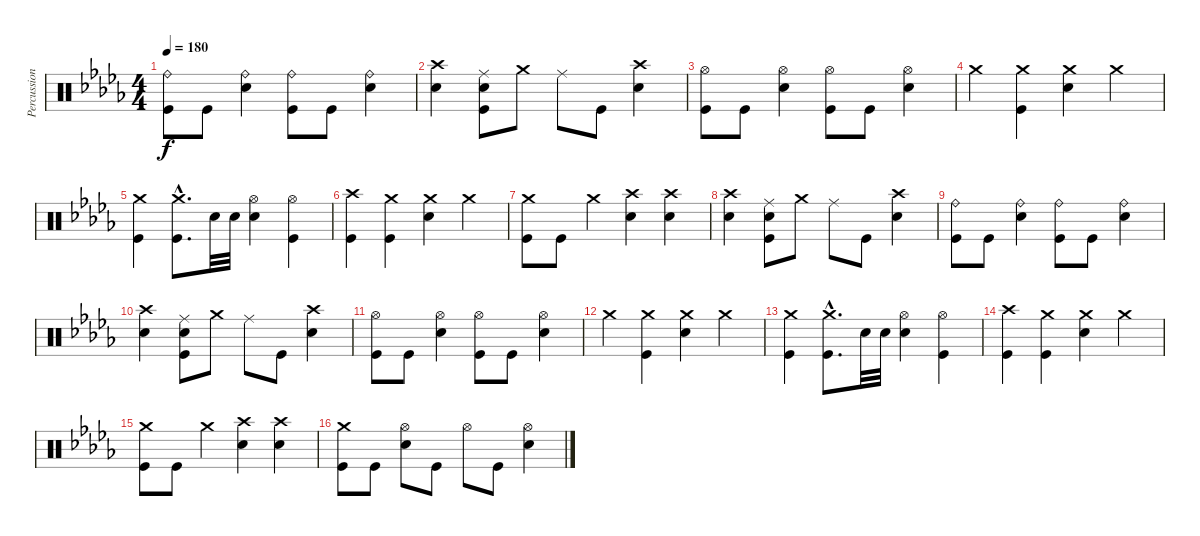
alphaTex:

\track ("Percussion" "Percussion") {instrument percussion}
\staff {score}
\articulation defaults
\ts (4 4)
\tempo 180
\clef neutral
\ks db
("Ride (bell)" "Kick (hit)").8{dy f} "Kick (hit)".8 ("Ride (bell)" "Electric Snare (hit)").4 ("Ride (bell)" "Kick (hit)").8 "Kick (hit)".8 ("Ride (bell)" "Electric Snare (hit)").4 |
("Crash high (hit)" "Electric Snare (hit)").4 ("Ride (middle)" "Electric Snare (hit)" "Kick (hit)").8 "Crash medium (hit)".8 "Ride (middle)".8 "Kick (hit)".8 ("Crash high (hit)" "Electric Snare (hit)").4 |
("Hi-Hat (open)" "Kick (hit)").8 "Kick (hit)".8 ("Hi-Hat (open)" "Electric Snare (hit)").4 ("Hi-Hat (open)" "Kick (hit)").8 "Kick (hit)".8 ("Hi-Hat (open)" "Electric Snare (hit)").4 |
"Crash medium (hit)".4 ("Crash medium (hit)" "Kick (hit)").4 ("Crash medium (hit)" "Electric Snare (hit)").4 "Crash medium (hit)".4 |
("Crash medium (hit)" "Kick (hit)").4 ("Crash medium (hit)"{hac} "Kick (hit)"{hac}).8{d} "Electric Snare (hit)".32 "Electric Snare (hit)".32 ("Hi-Hat (open)" "Electric Snare (hit)").4 ("Hi-Hat (open)" "Kick (hit)").4 |
("Crash high (hit)" "Kick (hit)").4 ("Crash medium (hit)" "Kick (hit)").4 ("Crash medium (hit)" "Electric Snare (hit)").4 "Crash medium (hit)".4 |
("Crash medium (hit)" "Kick (hit)").8 "Kick (hit)".8 "Crash medium (hit)".4 ("Crash high (hit)" "Electric Snare (hit)").4 ("Crash high (hit)" "Electric Snare (hit)").4 |
("Crash high (hit)" "Electric Snare (hit)").4 ("Ride (middle)" "Electric Snare (hit)" "Kick (hit)").8 "Crash medium (hit)".8 "Ride (middle)".8 "Kick (hit)".8 ("Crash high (hit)" "Electric Snare (hit)").4 |
("Ride (bell)" "Kick (hit)").8 "Kick (hit)".8 ("Ride (bell)" "Electric Snare (hit)").4 ("Ride (bell)" "Kick (hit)").8 "Kick (hit)".8 ("Ride (bell)" "Electric Snare (hit)").4 |
("Crash high (hit)" "Electric Snare (hit)").4 ("Ride (middle)" "Electric Snare (hit)" "Kick (hit)").8 "Crash medium (hit)".8 "Ride (middle)".8 "Kick (hit)".8 ("Crash high (hit)" "Electric Snare (hit)").4 |
("Hi-Hat (open)" "Kick (hit)").8 "Kick (hit)".8 ("Hi-Hat (open)" "Electric Snare (hit)").4 ("Hi-Hat (open)" "Kick (hit)").8 "Kick (hit)".8 ("Hi-Hat (open)" "Electric Snare (hit)").4 |
"Crash medium (hit)".4 ("Crash medium (hit)" "Kick (hit)").4 ("Crash medium (hit)" "Electric Snare (hit)").4 "Crash medium (hit)".4 |
("Crash medium (hit)" "Kick (hit)").4 ("Crash medium (hit)"{hac} "Kick (hit)"{hac}).8{d} "Electric Snare (hit)".32 "Electric Snare (hit)".32 ("Hi-Hat (open)" "Electric Snare (hit)").4 ("Hi-Hat (open)" "Kick (hit)").4 |
("Crash high (hit)" "Kick (hit)").4 ("Crash medium (hit)" "Kick (hit)").4 ("Crash medium (hit)" "Electric Snare (hit)").4 "Crash medium (hit)".4 |
("Crash medium (hit)" "Kick (hit)").8 "Kick (hit)".8 "Crash medium (hit)".4 ("Crash high (hit)" "Electric Snare (hit)").4 ("Crash high (hit)" "Electric Snare (hit)").4 |
("Crash medium (hit)" "Kick (hit)").8 "Kick (hit)".8 ("Hi-Hat (open)" "Electric Snare (hit)").8 "Kick (hit)".8 "Hi-Hat (open)".8 "Kick (hit)".8 ("Hi-Hat (open)" "Electric Snare (hit)").4
